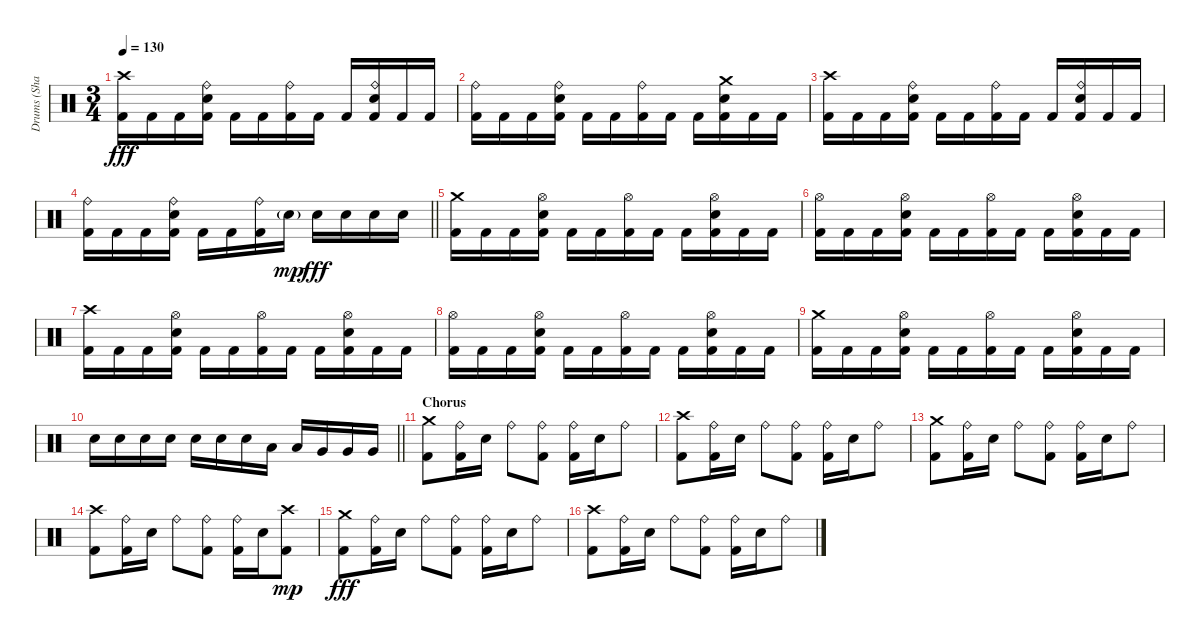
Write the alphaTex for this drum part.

\track ("Drums (Shawn)" "Drums (Sha") {instrument percussion}
\staff {score}
\articulation defaults
\ts (3 4)
\tempo 130
\clef neutral
\ks c
("Crash high (hit)" "Kick (hit) 2").16{dy fff} "Kick (hit) 2".16 "Kick (hit) 2".16 ("Ride (bell)" "Snare (hit) 2" "Kick (hit) 2").16 "Kick (hit) 2".16 "Kick (hit) 2".16 ("Ride (bell)" "Kick (hit) 2").16 "Kick (hit) 2".16 "Kick (hit) 2".16 ("Ride (bell)" "Snare (hit) 2" "Kick (hit) 2").16 "Kick (hit) 2".16 "Kick (hit) 2".16 |
("Ride (bell)" "Kick (hit) 2").16 "Kick (hit) 2".16 "Kick (hit) 2".16 ("Ride (bell)" "Snare (hit) 2" "Kick (hit) 2").16 "Kick (hit) 2".16 "Kick (hit) 2".16 ("Ride (bell)" "Kick (hit) 2").16 "Kick (hit) 2".16 "Kick (hit) 2".16 ("Crash medium (hit)" "Snare (hit) 2" "Kick (hit) 2").16 "Kick (hit) 2".16 "Kick (hit) 2".16 |
("Crash high (hit)" "Kick (hit) 2").16 "Kick (hit) 2".16 "Kick (hit) 2".16 ("Ride (bell)" "Snare (hit) 2" "Kick (hit) 2").16 "Kick (hit) 2".16 "Kick (hit) 2".16 ("Ride (bell)" "Kick (hit) 2").16 "Kick (hit) 2".16 "Kick (hit) 2".16 ("Ride (bell)" "Snare (hit) 2" "Kick (hit) 2").16 "Kick (hit) 2".16 "Kick (hit) 2".16 |
\barLineRight lightlight
("Ride (bell)" "Kick (hit) 2").16 "Kick (hit) 2".16 "Kick (hit) 2".16 ("Ride (bell)" "Snare (hit) 2" "Kick (hit) 2").16 "Kick (hit) 2".16 "Kick (hit) 2".16 ("Ride (bell)" "Kick (hit) 2").16 "Snare (hit) 2"{g}.16{dy mp} "Snare (hit) 2".16{dy fff} "Snare (hit) 2".16 "Snare (hit) 2".16 "Snare (hit) 2".16 |
("Crash medium (hit)" "Kick (hit) 2").16 "Kick (hit) 2".16 "Kick (hit) 2".16 ("Hi-Hat (open)" "Snare (hit) 2" "Kick (hit) 2").16 "Kick (hit) 2".16 "Kick (hit) 2".16 ("Hi-Hat (open)" "Kick (hit) 2").16 "Kick (hit) 2".16 "Kick (hit) 2".16 ("Hi-Hat (open)" "Snare (hit) 2" "Kick (hit) 2").16 "Kick (hit) 2".16 "Kick (hit) 2".16 |
("Hi-Hat (open)" "Kick (hit) 2").16 "Kick (hit) 2".16 "Kick (hit) 2".16 ("Hi-Hat (open)" "Snare (hit) 2" "Kick (hit) 2").16 "Kick (hit) 2".16 "Kick (hit) 2".16 ("Hi-Hat (open)" "Kick (hit) 2").16 "Kick (hit) 2".16 "Kick (hit) 2".16 ("Hi-Hat (open)" "Snare (hit) 2" "Kick (hit) 2").16 "Kick (hit) 2".16 "Kick (hit) 2".16 |
("Crash high (hit)" "Kick (hit) 2").16 "Kick (hit) 2".16 "Kick (hit) 2".16 ("Hi-Hat (open)" "Snare (hit) 2" "Kick (hit) 2").16 "Kick (hit) 2".16 "Kick (hit) 2".16 ("Hi-Hat (open)" "Kick (hit) 2").16 "Kick (hit) 2".16 "Kick (hit) 2".16 ("Hi-Hat (open)" "Snare (hit) 2" "Kick (hit) 2").16 "Kick (hit) 2".16 "Kick (hit) 2".16 |
("Hi-Hat (open)" "Kick (hit) 2").16 "Kick (hit) 2".16 "Kick (hit) 2".16 ("Hi-Hat (open)" "Snare (hit) 2" "Kick (hit) 2").16 "Kick (hit) 2".16 "Kick (hit) 2".16 ("Hi-Hat (open)" "Kick (hit) 2").16 "Kick (hit) 2".16 "Kick (hit) 2".16 ("Hi-Hat (open)" "Snare (hit) 2" "Kick (hit) 2").16 "Kick (hit) 2".16 "Kick (hit) 2".16 |
("Crash medium (hit)" "Kick (hit) 2").16 "Kick (hit) 2".16 "Kick (hit) 2".16 ("Hi-Hat (open)" "Snare (hit) 2" "Kick (hit) 2").16 "Kick (hit) 2".16 "Kick (hit) 2".16 ("Hi-Hat (open)" "Kick (hit) 2").16 "Kick (hit) 2".16 "Kick (hit) 2".16 ("Hi-Hat (open)" "Snare (hit) 2" "Kick (hit) 2").16 "Kick (hit) 2".16 "Kick (hit) 2".16 |
\barLineRight lightlight "Snare (hit) 2".16 "Snare (hit) 2".16 "Snare (hit) 2".16 "Snare (hit) 2".16 "Snare (hit) 2".16 "Snare (hit) 2".16 "Snare (hit) 2".16 "Low Tom (hit)".16 "Low Tom (hit)".16 "Very Low Tom (hit)".16 "Very Low Tom (hit)".16 "Very Low Tom (hit)".16
|
\section ("" "Chorus")
("Crash medium (hit)" "Kick (hit) 2").8 ("Ride (bell)" "Kick (hit) 2").16 "Snare (hit) 2".16 "Ride (bell)".8 ("Ride (bell)" "Kick (hit) 2").8 ("Ride (bell)" "Kick (hit) 2").16 "Snare (hit) 2".16 "Ride (bell)".8 |
("Crash high (hit)" "Kick (hit) 2").8 ("Ride (bell)" "Kick (hit) 2").16 "Snare (hit) 2".16 "Ride (bell)".8 ("Ride (bell)" "Kick (hit) 2").8 ("Ride (bell)" "Kick (hit) 2").16 "Snare (hit) 2".16 "Ride (bell)".8 |
("Crash medium (hit)" "Kick (hit) 2").8 ("Ride (bell)" "Kick (hit) 2").16 "Snare (hit) 2".16 "Ride (bell)".8 ("Ride (bell)" "Kick (hit) 2").8 ("Ride (bell)" "Kick (hit) 2").16 "Snare (hit) 2".16 "Ride (bell)".8 |
("Crash high (hit)" "Kick (hit) 2").8 ("Ride (bell)" "Kick (hit) 2").16 "Snare (hit) 2".16 "Ride (bell)".8 ("Ride (bell)" "Kick (hit) 2").8 ("Ride (bell)" "Kick (hit) 2").16 "Snare (hit) 2".16 ("Crash high (hit)" "Kick (hit) 2").8{dy mp} |
("Crash medium (hit)" "Kick (hit) 2").8{dy fff} ("Ride (bell)" "Kick (hit) 2").16 "Snare (hit) 2".16 "Ride (bell)".8 ("Ride (bell)" "Kick (hit) 2").8 ("Ride (bell)" "Kick (hit) 2").16 "Snare (hit) 2".16 "Ride (bell)".8 |
("Crash high (hit)" "Kick (hit) 2").8 ("Ride (bell)" "Kick (hit) 2").16 "Snare (hit) 2".16 "Ride (bell)".8 ("Ride (bell)" "Kick (hit) 2").8 ("Ride (bell)" "Kick (hit) 2").16 "Snare (hit) 2".16 "Ride (bell)".8
